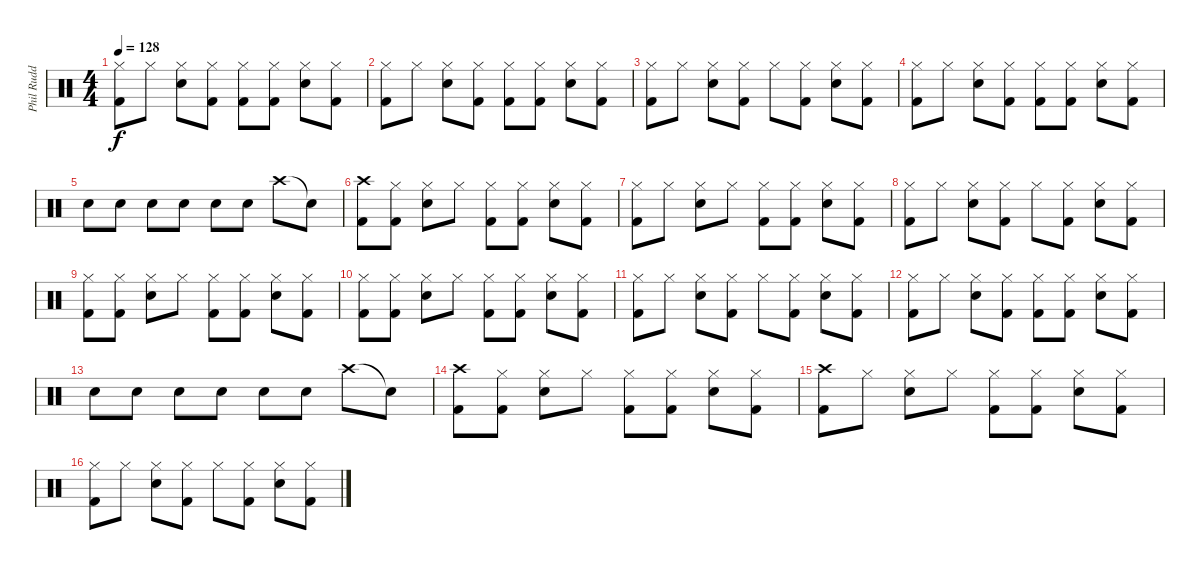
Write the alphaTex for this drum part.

\track ("Phil Rudd" "Phil Rudd") {instrument percussion}
\staff {score}
\articulation defaults
\ts (4 4)
\tempo 128
\clef neutral
\ks c
("Hi-Hat (closed)" "Kick (hit) 2").8{dy f} "Hi-Hat (closed)".8 ("Hi-Hat (closed)" "Snare (hit) 2").8 ("Hi-Hat (closed)" "Kick (hit) 2").8 ("Hi-Hat (closed)" "Kick (hit) 2").8 ("Hi-Hat (closed)" "Kick (hit) 2").8 ("Hi-Hat (closed)" "Snare (hit) 2").8 ("Hi-Hat (closed)" "Kick (hit) 2").8 |
("Hi-Hat (closed)" "Kick (hit) 2").8 "Hi-Hat (closed)".8 ("Hi-Hat (closed)" "Snare (hit) 2").8 ("Hi-Hat (closed)" "Kick (hit) 2").8 ("Hi-Hat (closed)" "Kick (hit) 2").8 ("Hi-Hat (closed)" "Kick (hit) 2").8 ("Hi-Hat (closed)" "Snare (hit) 2").8 ("Hi-Hat (closed)" "Kick (hit) 2").8 |
("Hi-Hat (closed)" "Kick (hit) 2").8 "Hi-Hat (closed)".8 ("Hi-Hat (closed)" "Snare (hit) 2").8 ("Hi-Hat (closed)" "Kick (hit) 2").8 "Hi-Hat (closed)".8 ("Hi-Hat (closed)" "Kick (hit) 2").8 ("Hi-Hat (closed)" "Snare (hit) 2").8 ("Hi-Hat (closed)" "Kick (hit) 2").8 |
("Hi-Hat (closed)" "Kick (hit) 2").8 "Hi-Hat (closed)".8 ("Hi-Hat (closed)" "Snare (hit) 2").8 ("Hi-Hat (closed)" "Kick (hit) 2").8 ("Hi-Hat (closed)" "Kick (hit) 2").8 ("Hi-Hat (closed)" "Kick (hit) 2").8 ("Hi-Hat (closed)" "Snare (hit) 2").8 ("Hi-Hat (closed)" "Kick (hit) 2").8 |
"Snare (hit) 2".8 "Snare (hit) 2".8 "Snare (hit) 2".8 "Snare (hit) 2".8 "Snare (hit) 2".8 "Snare (hit) 2".8 "Crash high (hit)".8 "Snare (hit)"{t}.8 |
("Crash high (hit)" "Kick (hit) 2").8 ("Hi-Hat (closed)" "Kick (hit) 2").8 ("Hi-Hat (closed)" "Snare (hit) 2").8 "Hi-Hat (closed)".8 ("Hi-Hat (closed)" "Kick (hit) 2").8 ("Hi-Hat (closed)" "Kick (hit) 2").8 ("Hi-Hat (closed)" "Snare (hit) 2").8 ("Hi-Hat (closed)" "Kick (hit) 2").8 |
("Hi-Hat (closed)" "Kick (hit) 2").8 "Hi-Hat (closed)".8 ("Hi-Hat (closed)" "Snare (hit) 2").8 "Hi-Hat (closed)".8 ("Hi-Hat (closed)" "Kick (hit) 2").8 ("Hi-Hat (closed)" "Kick (hit) 2").8 ("Hi-Hat (closed)" "Snare (hit) 2").8 ("Hi-Hat (closed)" "Kick (hit) 2").8 |
("Hi-Hat (closed)" "Kick (hit) 2").8 "Hi-Hat (closed)".8 ("Hi-Hat (closed)" "Snare (hit) 2").8 ("Hi-Hat (closed)" "Kick (hit) 2").8 "Hi-Hat (closed)".8 ("Hi-Hat (closed)" "Kick (hit) 2").8 ("Hi-Hat (closed)" "Snare (hit) 2").8 ("Hi-Hat (closed)" "Kick (hit) 2").8 |
("Hi-Hat (closed)" "Kick (hit) 2").8 ("Hi-Hat (closed)" "Kick (hit) 2").8 ("Hi-Hat (closed)" "Snare (hit) 2").8 "Hi-Hat (closed)".8 ("Hi-Hat (closed)" "Kick (hit) 2").8 ("Hi-Hat (closed)" "Kick (hit) 2").8 ("Hi-Hat (closed)" "Snare (hit) 2").8 ("Hi-Hat (closed)" "Kick (hit) 2").8 |
("Hi-Hat (closed)" "Kick (hit) 2").8 ("Hi-Hat (closed)" "Kick (hit) 2").8 ("Hi-Hat (closed)" "Snare (hit) 2").8 "Hi-Hat (closed)".8 ("Hi-Hat (closed)" "Kick (hit) 2").8 ("Hi-Hat (closed)" "Kick (hit) 2").8 ("Hi-Hat (closed)" "Snare (hit) 2").8 ("Hi-Hat (closed)" "Kick (hit) 2").8 |
("Hi-Hat (closed)" "Kick (hit) 2").8 "Hi-Hat (closed)".8 ("Hi-Hat (closed)" "Snare (hit) 2").8 ("Hi-Hat (closed)" "Kick (hit) 2").8 "Hi-Hat (closed)".8 ("Hi-Hat (closed)" "Kick (hit) 2").8 ("Hi-Hat (closed)" "Snare (hit) 2").8 ("Hi-Hat (closed)" "Kick (hit) 2").8 |
("Hi-Hat (closed)" "Kick (hit) 2").8 "Hi-Hat (closed)".8 ("Hi-Hat (closed)" "Snare (hit) 2").8 ("Hi-Hat (closed)" "Kick (hit) 2").8 ("Hi-Hat (closed)" "Kick (hit) 2").8 ("Hi-Hat (closed)" "Kick (hit) 2").8 ("Hi-Hat (closed)" "Snare (hit) 2").8 ("Hi-Hat (closed)" "Kick (hit) 2").8 |
"Snare (hit) 2".8 "Snare (hit) 2".8 "Snare (hit) 2".8 "Snare (hit) 2".8 "Snare (hit) 2".8 "Snare (hit) 2".8 "Crash high (hit)".8 "Snare (hit)"{t}.8 |
("Crash high (hit)" "Kick (hit) 2").8 ("Hi-Hat (closed)" "Kick (hit) 2").8 ("Hi-Hat (closed)" "Snare (hit) 2").8 "Hi-Hat (closed)".8 ("Hi-Hat (closed)" "Kick (hit) 2").8 ("Hi-Hat (closed)" "Kick (hit) 2").8 ("Hi-Hat (closed)" "Snare (hit) 2").8 ("Hi-Hat (closed)" "Kick (hit) 2").8 |
("Crash high (hit)" "Kick (hit) 2").8 "Hi-Hat (closed)".8 ("Hi-Hat (closed)" "Snare (hit) 2").8 "Hi-Hat (closed)".8 ("Hi-Hat (closed)" "Kick (hit) 2").8 ("Hi-Hat (closed)" "Kick (hit) 2").8 ("Hi-Hat (closed)" "Snare (hit) 2").8 ("Hi-Hat (closed)" "Kick (hit) 2").8 |
("Hi-Hat (closed)" "Kick (hit) 2").8 "Hi-Hat (closed)".8 ("Hi-Hat (closed)" "Snare (hit) 2").8 ("Hi-Hat (closed)" "Kick (hit) 2").8 "Hi-Hat (closed)".8 ("Hi-Hat (closed)" "Kick (hit) 2").8 ("Hi-Hat (closed)" "Snare (hit) 2").8 ("Hi-Hat (closed)" "Kick (hit) 2").8
